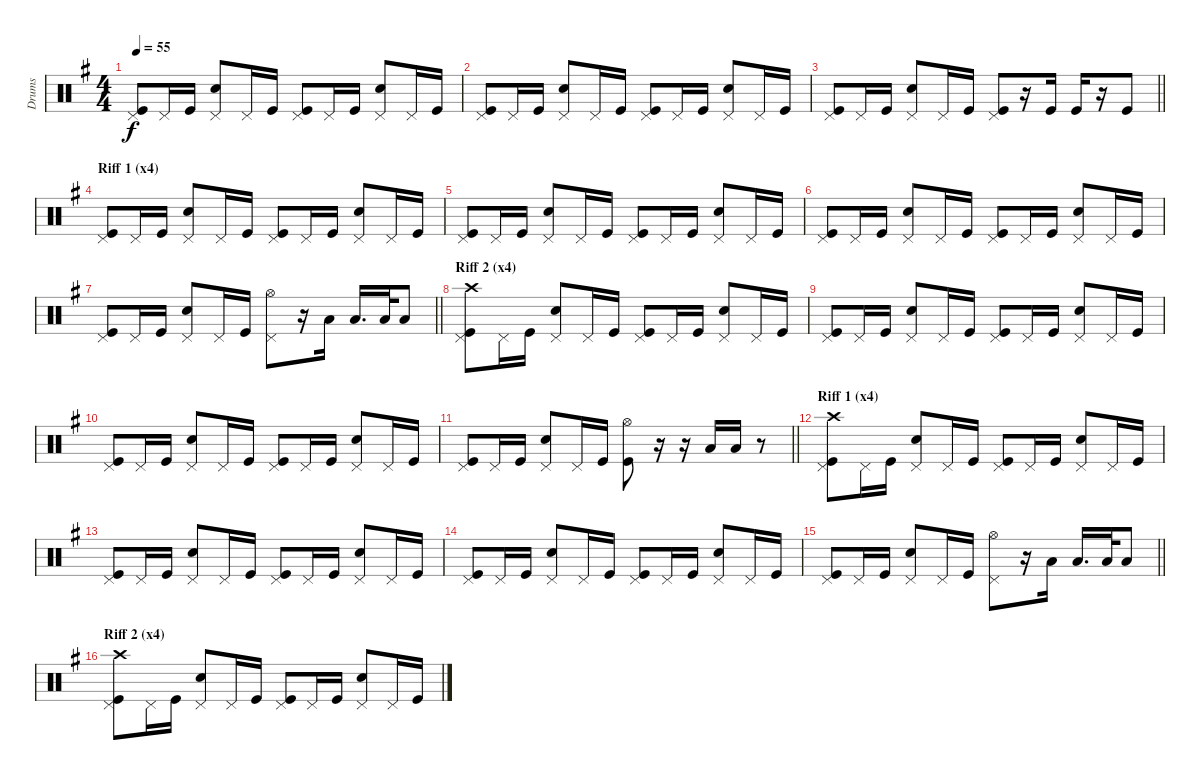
\track ("Drums" "Drums") {instrument percussion}
\staff {score}
\articulation defaults
\ts (4 4)
\tempo 55
\clef neutral
\ks eminor
("Kick (hit)" "Pedal Hi-Hat (hit)").8{dy f} "Pedal Hi-Hat (hit)".16 "Kick (hit)".16 ("Snare (hit) 2" "Pedal Hi-Hat (hit)").8 "Pedal Hi-Hat (hit)".16 "Kick (hit)".16 ("Kick (hit)" "Pedal Hi-Hat (hit)").8 "Pedal Hi-Hat (hit)".16 "Kick (hit)".16 ("Snare (hit) 2" "Pedal Hi-Hat (hit)").8 "Pedal Hi-Hat (hit)".16 "Kick (hit)".16 |
("Kick (hit)" "Pedal Hi-Hat (hit)").8 "Pedal Hi-Hat (hit)".16 "Kick (hit)".16 ("Snare (hit) 2" "Pedal Hi-Hat (hit)").8 "Pedal Hi-Hat (hit)".16 "Kick (hit)".16 ("Kick (hit)" "Pedal Hi-Hat (hit)").8 "Pedal Hi-Hat (hit)".16 "Kick (hit)".16 ("Snare (hit) 2" "Pedal Hi-Hat (hit)").8 "Pedal Hi-Hat (hit)".16 "Kick (hit)".16 |
\barLineRight lightlight
("Kick (hit)" "Pedal Hi-Hat (hit)").8 "Pedal Hi-Hat (hit)".16 "Kick (hit)".16 ("Snare (hit) 2" "Pedal Hi-Hat (hit)").8 "Pedal Hi-Hat (hit)".16 "Kick (hit)".16 ("Kick (hit)" "Pedal Hi-Hat (hit)").8 r.16 "Kick (hit)".16 "Kick (hit)".16 r.16 "Kick (hit)".8 |
\section ("" "Riff 1 (x4)")
("Kick (hit)" "Pedal Hi-Hat (hit)").8 "Pedal Hi-Hat (hit)".16 "Kick (hit)".16 ("Snare (hit) 2" "Pedal Hi-Hat (hit)").8 "Pedal Hi-Hat (hit)".16 "Kick (hit)".16 ("Kick (hit)" "Pedal Hi-Hat (hit)").8 "Pedal Hi-Hat (hit)".16 "Kick (hit)".16 ("Snare (hit) 2" "Pedal Hi-Hat (hit)").8 "Pedal Hi-Hat (hit)".16 "Kick (hit)".16 |
("Kick (hit)" "Pedal Hi-Hat (hit)").8 "Pedal Hi-Hat (hit)".16 "Kick (hit)".16 ("Snare (hit) 2" "Pedal Hi-Hat (hit)").8 "Pedal Hi-Hat (hit)".16 "Kick (hit)".16 ("Kick (hit)" "Pedal Hi-Hat (hit)").8 "Pedal Hi-Hat (hit)".16 "Kick (hit)".16 ("Snare (hit) 2" "Pedal Hi-Hat (hit)").8 "Pedal Hi-Hat (hit)".16 "Kick (hit)".16 |
("Kick (hit)" "Pedal Hi-Hat (hit)").8 "Pedal Hi-Hat (hit)".16 "Kick (hit)".16 ("Snare (hit) 2" "Pedal Hi-Hat (hit)").8 "Pedal Hi-Hat (hit)".16 "Kick (hit)".16 ("Kick (hit)" "Pedal Hi-Hat (hit)").8 "Pedal Hi-Hat (hit)".16 "Kick (hit)".16 ("Snare (hit) 2" "Pedal Hi-Hat (hit)").8 "Pedal Hi-Hat (hit)".16 "Kick (hit)".16 |
\barLineRight lightlight
("Kick (hit)" "Pedal Hi-Hat (hit)").8 "Pedal Hi-Hat (hit)".16 "Kick (hit)".16 ("Snare (hit) 2" "Pedal Hi-Hat (hit)").8 "Pedal Hi-Hat (hit)".16 "Kick (hit)".16 ("Hi-Hat (open)" "Pedal Hi-Hat (hit)").8 r.16 "Low Tom (hit)".16 "Low Tom (hit)".16{d} "Low Tom (hit)".32 "Low Tom (hit)".8 |
\section ("" "Riff 2 (x4)")
("Crash high (hit)" "Kick (hit)" "Pedal Hi-Hat (hit)").8 "Pedal Hi-Hat (hit)".16 "Kick (hit)".16 ("Snare (hit) 2" "Pedal Hi-Hat (hit)").8 "Pedal Hi-Hat (hit)".16 "Kick (hit)".16 ("Kick (hit)" "Pedal Hi-Hat (hit)").8 "Pedal Hi-Hat (hit)".16 "Kick (hit)".16 ("Snare (hit) 2" "Pedal Hi-Hat (hit)").8 "Pedal Hi-Hat (hit)".16 "Kick (hit)".16 |
("Kick (hit)" "Pedal Hi-Hat (hit)").8 "Pedal Hi-Hat (hit)".16 "Kick (hit)".16 ("Snare (hit) 2" "Pedal Hi-Hat (hit)").8 "Pedal Hi-Hat (hit)".16 "Kick (hit)".16 ("Kick (hit)" "Pedal Hi-Hat (hit)").8 "Pedal Hi-Hat (hit)".16 "Kick (hit)".16 ("Snare (hit) 2" "Pedal Hi-Hat (hit)").8 "Pedal Hi-Hat (hit)".16 "Kick (hit)".16 |
("Kick (hit)" "Pedal Hi-Hat (hit)").8 "Pedal Hi-Hat (hit)".16 "Kick (hit)".16 ("Snare (hit) 2" "Pedal Hi-Hat (hit)").8 "Pedal Hi-Hat (hit)".16 "Kick (hit)".16 ("Kick (hit)" "Pedal Hi-Hat (hit)").8 "Pedal Hi-Hat (hit)".16 "Kick (hit)".16 ("Snare (hit) 2" "Pedal Hi-Hat (hit)").8 "Pedal Hi-Hat (hit)".16 "Kick (hit)".16 |
\barLineRight lightlight
("Kick (hit)" "Pedal Hi-Hat (hit)").8 "Pedal Hi-Hat (hit)".16 "Kick (hit)".16 ("Snare (hit) 2" "Pedal Hi-Hat (hit)").8 "Pedal Hi-Hat (hit)".16 "Kick (hit)".16 ("Kick (hit)" "Hi-Hat (open)").8 r.16 r.16 "Low Tom (hit)".16 "Low Tom (hit)".16 r.8 |
\section ("" "Riff 1 (x4)")
("Crash high (hit)" "Kick (hit)" "Pedal Hi-Hat (hit)").8 "Pedal Hi-Hat (hit)".16 "Kick (hit)".16 ("Snare (hit) 2" "Pedal Hi-Hat (hit)").8 "Pedal Hi-Hat (hit)".16 "Kick (hit)".16 ("Kick (hit)" "Pedal Hi-Hat (hit)").8 "Pedal Hi-Hat (hit)".16 "Kick (hit)".16 ("Snare (hit) 2" "Pedal Hi-Hat (hit)").8 "Pedal Hi-Hat (hit)".16 "Kick (hit)".16 |
("Kick (hit)" "Pedal Hi-Hat (hit)").8 "Pedal Hi-Hat (hit)".16 "Kick (hit)".16 ("Snare (hit) 2" "Pedal Hi-Hat (hit)").8 "Pedal Hi-Hat (hit)".16 "Kick (hit)".16 ("Kick (hit)" "Pedal Hi-Hat (hit)").8 "Pedal Hi-Hat (hit)".16 "Kick (hit)".16 ("Snare (hit) 2" "Pedal Hi-Hat (hit)").8 "Pedal Hi-Hat (hit)".16 "Kick (hit)".16 |
("Kick (hit)" "Pedal Hi-Hat (hit)").8 "Pedal Hi-Hat (hit)".16 "Kick (hit)".16 ("Snare (hit) 2" "Pedal Hi-Hat (hit)").8 "Pedal Hi-Hat (hit)".16 "Kick (hit)".16 ("Kick (hit)" "Pedal Hi-Hat (hit)").8 "Pedal Hi-Hat (hit)".16 "Kick (hit)".16 ("Snare (hit) 2" "Pedal Hi-Hat (hit)").8 "Pedal Hi-Hat (hit)".16 "Kick (hit)".16 |
\barLineRight lightlight
("Kick (hit)" "Pedal Hi-Hat (hit)").8 "Pedal Hi-Hat (hit)".16 "Kick (hit)".16 ("Snare (hit) 2" "Pedal Hi-Hat (hit)").8 "Pedal Hi-Hat (hit)".16 "Kick (hit)".16 ("Hi-Hat (open)" "Pedal Hi-Hat (hit)").8 r.16 "Low Tom (hit)".16 "Low Tom (hit)".16{d} "Low Tom (hit)".32 "Low Tom (hit)".8 |
\section ("" "Riff 2 (x4)")
("Crash high (hit)" "Kick (hit)" "Pedal Hi-Hat (hit)").8 "Pedal Hi-Hat (hit)".16 "Kick (hit)".16 ("Snare (hit) 2" "Pedal Hi-Hat (hit)").8 "Pedal Hi-Hat (hit)".16 "Kick (hit)".16 ("Kick (hit)" "Pedal Hi-Hat (hit)").8 "Pedal Hi-Hat (hit)".16 "Kick (hit)".16 ("Snare (hit) 2" "Pedal Hi-Hat (hit)").8 "Pedal Hi-Hat (hit)".16 "Kick (hit)".16
